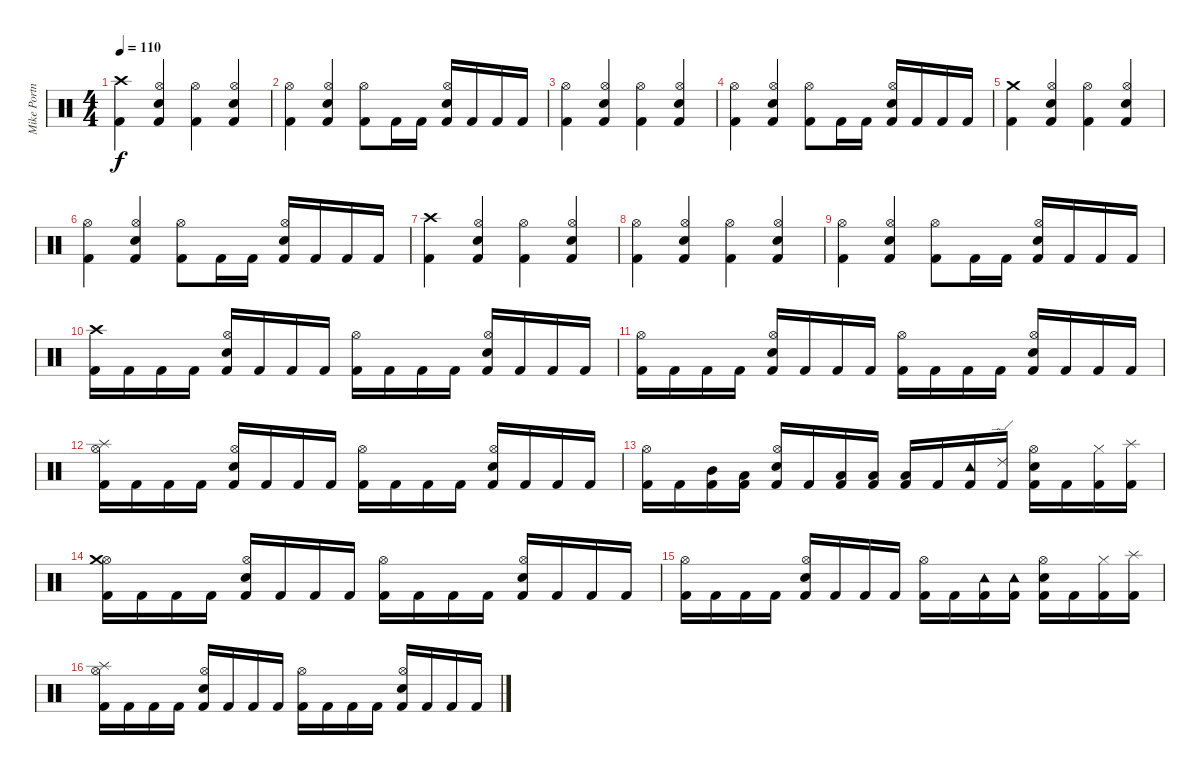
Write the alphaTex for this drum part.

\track ("Mike Portnoy - Drums" "Mike Portn") {instrument percussion}
\staff {score}
\articulation defaults
\ts (4 4)
\tempo 110
\clef neutral
\ks c
("Kick (hit) 2" "Crash high (hit)").4{dy f} ("Hi-Hat (open)" "Electric Snare (hit)" "Kick (hit) 2").4 ("Hi-Hat (open)" "Kick (hit) 2").4 ("Hi-Hat (open)" "Electric Snare (hit)" "Kick (hit) 2").4 |
("Hi-Hat (open)" "Kick (hit) 2").4 ("Hi-Hat (open)" "Electric Snare (hit)" "Kick (hit) 2").4 ("Hi-Hat (open)" "Kick (hit) 2").8 "Kick (hit) 2".16 "Kick (hit) 2".16 ("Hi-Hat (open)" "Kick (hit) 2" "Electric Snare (hit)").16 "Kick (hit) 2".16 "Kick (hit) 2".16 "Kick (hit) 2".16 |
("Kick (hit) 2" "Hi-Hat (open)").4 ("Hi-Hat (open)" "Electric Snare (hit)" "Kick (hit) 2").4 ("Hi-Hat (open)" "Kick (hit) 2").4 ("Hi-Hat (open)" "Electric Snare (hit)" "Kick (hit) 2").4 |
("Hi-Hat (open)" "Kick (hit) 2").4 ("Hi-Hat (open)" "Electric Snare (hit)" "Kick (hit) 2").4 ("Hi-Hat (open)" "Kick (hit) 2").8 "Kick (hit) 2".16 "Kick (hit) 2".16 ("Hi-Hat (open)" "Kick (hit) 2" "Electric Snare (hit)").16 "Kick (hit) 2".16 "Kick (hit) 2".16 "Kick (hit) 2".16 |
("Kick (hit) 2" "Crash medium (hit)").4 ("Hi-Hat (open)" "Electric Snare (hit)" "Kick (hit) 2").4 ("Hi-Hat (open)" "Kick (hit) 2").4 ("Hi-Hat (open)" "Electric Snare (hit)" "Kick (hit) 2").4 |
("Hi-Hat (open)" "Kick (hit) 2").4 ("Hi-Hat (open)" "Electric Snare (hit)" "Kick (hit) 2").4 ("Hi-Hat (open)" "Kick (hit) 2").8 "Kick (hit) 2".16 "Kick (hit) 2".16 ("Hi-Hat (open)" "Kick (hit) 2" "Electric Snare (hit)").16 "Kick (hit) 2".16 "Kick (hit) 2".16 "Kick (hit) 2".16 |
("Kick (hit) 2" "Crash high (hit)").4 ("Hi-Hat (open)" "Electric Snare (hit)" "Kick (hit) 2").4 ("Hi-Hat (open)" "Kick (hit) 2").4 ("Hi-Hat (open)" "Electric Snare (hit)" "Kick (hit) 2").4 |
("Hi-Hat (open)" "Kick (hit) 2").4 ("Hi-Hat (open)" "Electric Snare (hit)" "Kick (hit) 2").4 ("Hi-Hat (open)" "Kick (hit) 2").4 ("Hi-Hat (open)" "Electric Snare (hit)" "Kick (hit) 2").4 |
("Hi-Hat (open)" "Kick (hit) 2").4 ("Hi-Hat (open)" "Electric Snare (hit)" "Kick (hit) 2").4 ("Hi-Hat (open)" "Kick (hit) 2").8 "Kick (hit) 2".16 "Kick (hit) 2".16 ("Hi-Hat (open)" "Kick (hit) 2" "Electric Snare (hit)").16 "Kick (hit) 2".16 "Kick (hit) 2".16 "Kick (hit) 2".16 |
("Kick (hit) 2" "Crash high (hit)").16 "Kick (hit) 2".16 "Kick (hit) 2".16 "Kick (hit) 2".16 ("Kick (hit) 2" "Electric Snare (hit)" "Hi-Hat (open)").16 "Kick (hit) 2".16 "Kick (hit) 2".16 "Kick (hit) 2".16 ("Kick (hit) 2" "Hi-Hat (open)").16 "Kick (hit) 2".16 "Kick (hit) 2".16 "Kick (hit) 2".16 ("Kick (hit) 2" "Electric Snare (hit)" "Hi-Hat (open)").16 "Kick (hit) 2".16 "Kick (hit) 2".16 "Kick (hit) 2".16 |
("Kick (hit) 2" "Hi-Hat (open)").16 "Kick (hit) 2".16 "Kick (hit) 2".16 "Kick (hit) 2".16 ("Kick (hit) 2" "Electric Snare (hit)" "Hi-Hat (open)").16 "Kick (hit) 2".16 "Kick (hit) 2".16 "Kick (hit) 2".16 ("Kick (hit) 2" "Hi-Hat (open)").16 "Kick (hit) 2".16 "Kick (hit) 2".16 "Kick (hit) 2".16 ("Kick (hit) 2" "Electric Snare (hit)" "Hi-Hat (open)").16 "Kick (hit) 2".16 "Kick (hit) 2".16 "Kick (hit) 2".16 |
("Kick (hit) 2" "Splash (hit)" "Hi-Hat (open)").16 "Kick (hit) 2".16 "Kick (hit) 2".16 "Kick (hit) 2".16 ("Kick (hit) 2" "Electric Snare (hit)" "Hi-Hat (open)").16 "Kick (hit) 2".16 "Kick (hit) 2".16 "Kick (hit) 2".16 ("Kick (hit) 2" "Hi-Hat (open)").16 "Kick (hit) 2".16 "Kick (hit) 2".16 "Kick (hit) 2".16 ("Kick (hit) 2" "Electric Snare (hit)" "Hi-Hat (open)").16 "Kick (hit) 2".16 "Kick (hit) 2".16 "Kick (hit) 2".16 |
("Kick (hit) 2" "Hi-Hat (open)").16 "Kick (hit) 2".16 ("Kick (hit) 2" "Mid Tom (hit)").16 ("Kick (hit) 2" "Low Tom (hit)").16 ("Kick (hit) 2" "Electric Snare (hit)" "Hi-Hat (open)").16 "Kick (hit) 2".16 ("Kick (hit) 2" "Low Tom (hit)").16 ("Kick (hit) 2" "Low Tom (hit)").16 ("Kick (hit) 2" "Low Tom (hit)").16 "Kick (hit) 2".16 ("Kick (hit) 2" "Tambourine (hit)").16 ("Kick (hit) 2" "Ride (edge) 2").16 ("Kick (hit) 2" "Hi-Hat (open)" "Electric Snare (hit)").16 "Kick (hit) 2".16 ("Kick (hit) 2" "Hi-Hat (closed)").16 ("Kick (hit) 2" "Splash (hit)").16 |
("Kick (hit) 2" "Hi-Hat (open)" "Crash medium (hit)").16 "Kick (hit) 2".16 "Kick (hit) 2".16 "Kick (hit) 2".16 ("Kick (hit) 2" "Electric Snare (hit)" "Hi-Hat (open)").16 "Kick (hit) 2".16 "Kick (hit) 2".16 "Kick (hit) 2".16 ("Kick (hit) 2" "Hi-Hat (open)").16 "Kick (hit) 2".16 "Kick (hit) 2".16 "Kick (hit) 2".16 ("Kick (hit) 2" "Electric Snare (hit)" "Hi-Hat (open)").16 "Kick (hit) 2".16 "Kick (hit) 2".16 "Kick (hit) 2".16 |
("Kick (hit) 2" "Hi-Hat (open)").16 "Kick (hit) 2".16 "Kick (hit) 2".16 "Kick (hit) 2".16 ("Kick (hit) 2" "Electric Snare (hit)" "Hi-Hat (open)").16 "Kick (hit) 2".16 "Kick (hit) 2".16 "Kick (hit) 2".16 ("Hi-Hat (open)" "Kick (hit) 2").16 "Kick (hit) 2".16 ("Tambourine (hit)" "Kick (hit) 2").16 ("Kick (hit) 2" "Tambourine (hit)").16 ("Hi-Hat (open)" "Electric Snare (hit)" "Kick (hit) 2").16 "Kick (hit) 2".16 ("Hi-Hat (closed)" "Kick (hit) 2").16 ("Splash (hit)" "Kick (hit) 2").16 |
("Hi-Hat (open)" "Splash (hit)" "Kick (hit) 2").16 "Kick (hit) 2".16 "Kick (hit) 2".16 "Kick (hit) 2".16 ("Kick (hit) 2" "Electric Snare (hit)" "Hi-Hat (open)").16 "Kick (hit) 2".16 "Kick (hit) 2".16 "Kick (hit) 2".16 ("Kick (hit) 2" "Hi-Hat (open)").16 "Kick (hit) 2".16 "Kick (hit) 2".16 "Kick (hit) 2".16 ("Kick (hit) 2" "Electric Snare (hit)" "Hi-Hat (open)").16 "Kick (hit) 2".16 "Kick (hit) 2".16 "Kick (hit) 2".16
